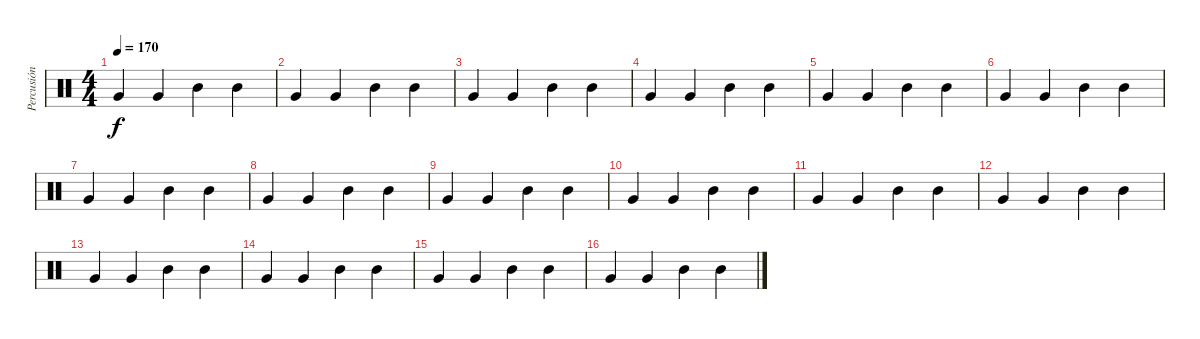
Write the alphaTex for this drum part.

\track ("Percusión" "Percusión") {instrument percussion}
\staff {score}
\articulation defaults
\ts (4 4)
\tempo 170
\clef neutral
\ks c "Very Low Tom (hit)".4{dy f} "Very Low Tom (hit)".4 "Mid Tom (hit)".4 "Mid Tom (hit)".4
|
"Very Low Tom (hit)".4 "Very Low Tom (hit)".4 "Mid Tom (hit)".4 "Mid Tom (hit)".4 |
"Very Low Tom (hit)".4 "Very Low Tom (hit)".4 "Mid Tom (hit)".4 "Mid Tom (hit)".4 |
"Very Low Tom (hit)".4 "Very Low Tom (hit)".4 "Mid Tom (hit)".4 "Mid Tom (hit)".4 |
"Very Low Tom (hit)".4 "Very Low Tom (hit)".4 "Mid Tom (hit)".4 "Mid Tom (hit)".4 |
"Very Low Tom (hit)".4 "Very Low Tom (hit)".4 "Mid Tom (hit)".4 "Mid Tom (hit)".4 |
"Very Low Tom (hit)".4 "Very Low Tom (hit)".4 "Mid Tom (hit)".4 "Mid Tom (hit)".4 |
"Very Low Tom (hit)".4 "Very Low Tom (hit)".4 "Mid Tom (hit)".4 "Mid Tom (hit)".4 |
"Very Low Tom (hit)".4 "Very Low Tom (hit)".4 "Mid Tom (hit)".4 "Mid Tom (hit)".4 |
"Very Low Tom (hit)".4 "Very Low Tom (hit)".4 "Mid Tom (hit)".4 "Mid Tom (hit)".4 |
"Very Low Tom (hit)".4 "Very Low Tom (hit)".4 "Mid Tom (hit)".4 "Mid Tom (hit)".4 |
"Very Low Tom (hit)".4 "Very Low Tom (hit)".4 "Mid Tom (hit)".4 "Mid Tom (hit)".4 |
"Very Low Tom (hit)".4 "Very Low Tom (hit)".4 "Mid Tom (hit)".4 "Mid Tom (hit)".4 |
"Very Low Tom (hit)".4 "Very Low Tom (hit)".4 "Mid Tom (hit)".4 "Mid Tom (hit)".4 |
"Very Low Tom (hit)".4 "Very Low Tom (hit)".4 "Mid Tom (hit)".4 "Mid Tom (hit)".4 |
"Very Low Tom (hit)".4 "Very Low Tom (hit)".4 "Mid Tom (hit)".4 "Mid Tom (hit)".4
